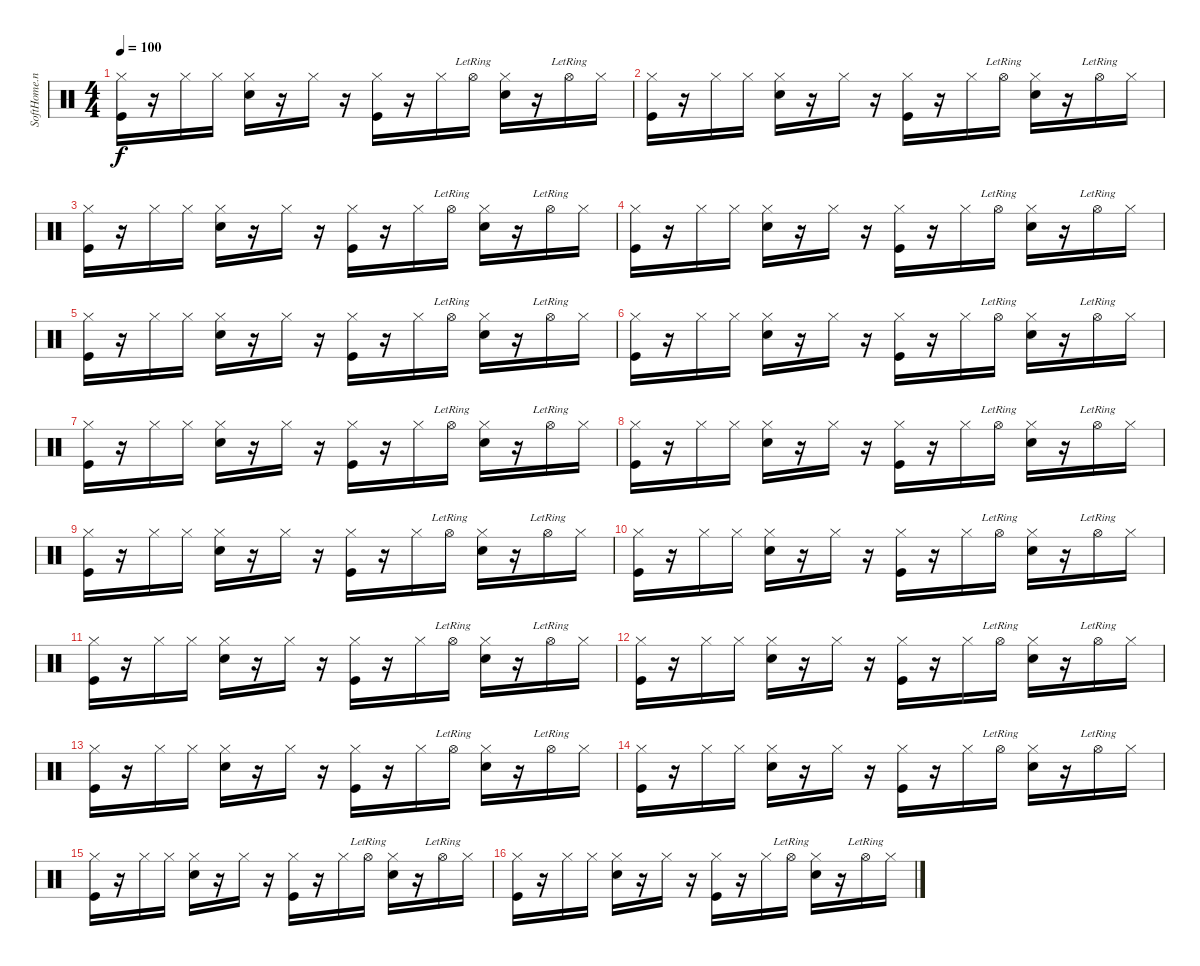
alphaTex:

\track ("SoftHome.net" "SoftHome.n") {instrument percussion}
\staff {score}
\articulation defaults
\ts (4 4)
\tempo 100
\clef neutral
\ks c
("Hi-Hat (closed)" "Kick (hit)").16{dy f} r.16 "Hi-Hat (closed)".16 "Hi-Hat (closed)".16 ("Hi-Hat (closed)" "Snare (hit) 2").16 r.16 "Hi-Hat (closed)".16 r.16 ("Hi-Hat (closed)" "Kick (hit)").16 r.16 "Hi-Hat (closed)".16 "Hi-Hat (open)"{lr}.16 ("Hi-Hat (closed)" "Snare (hit) 2").16 r.16 "Hi-Hat (open)"{lr}.16 "Hi-Hat (closed)".16 |
("Hi-Hat (closed)" "Kick (hit)").16 r.16 "Hi-Hat (closed)".16 "Hi-Hat (closed)".16 ("Hi-Hat (closed)" "Snare (hit) 2").16 r.16 "Hi-Hat (closed)".16 r.16 ("Hi-Hat (closed)" "Kick (hit)").16 r.16 "Hi-Hat (closed)".16 "Hi-Hat (open)"{lr}.16 ("Hi-Hat (closed)" "Snare (hit) 2").16 r.16 "Hi-Hat (open)"{lr}.16 "Hi-Hat (closed)".16 |
("Hi-Hat (closed)" "Kick (hit)").16 r.16 "Hi-Hat (closed)".16 "Hi-Hat (closed)".16 ("Hi-Hat (closed)" "Snare (hit) 2").16 r.16 "Hi-Hat (closed)".16 r.16 ("Hi-Hat (closed)" "Kick (hit)").16 r.16 "Hi-Hat (closed)".16 "Hi-Hat (open)"{lr}.16 ("Hi-Hat (closed)" "Snare (hit) 2").16 r.16 "Hi-Hat (open)"{lr}.16 "Hi-Hat (closed)".16 |
("Hi-Hat (closed)" "Kick (hit)").16 r.16 "Hi-Hat (closed)".16 "Hi-Hat (closed)".16 ("Hi-Hat (closed)" "Snare (hit) 2").16 r.16 "Hi-Hat (closed)".16 r.16 ("Hi-Hat (closed)" "Kick (hit)").16 r.16 "Hi-Hat (closed)".16 "Hi-Hat (open)"{lr}.16 ("Hi-Hat (closed)" "Snare (hit) 2").16 r.16 "Hi-Hat (open)"{lr}.16 "Hi-Hat (closed)".16 |
("Hi-Hat (closed)" "Kick (hit)").16 r.16 "Hi-Hat (closed)".16 "Hi-Hat (closed)".16 ("Hi-Hat (closed)" "Snare (hit) 2").16 r.16 "Hi-Hat (closed)".16 r.16 ("Hi-Hat (closed)" "Kick (hit)").16 r.16 "Hi-Hat (closed)".16 "Hi-Hat (open)"{lr}.16 ("Hi-Hat (closed)" "Snare (hit) 2").16 r.16 "Hi-Hat (open)"{lr}.16 "Hi-Hat (closed)".16 |
("Hi-Hat (closed)" "Kick (hit)").16 r.16 "Hi-Hat (closed)".16 "Hi-Hat (closed)".16 ("Hi-Hat (closed)" "Snare (hit) 2").16 r.16 "Hi-Hat (closed)".16 r.16 ("Hi-Hat (closed)" "Kick (hit)").16 r.16 "Hi-Hat (closed)".16 "Hi-Hat (open)"{lr}.16 ("Hi-Hat (closed)" "Snare (hit) 2").16 r.16 "Hi-Hat (open)"{lr}.16 "Hi-Hat (closed)".16 |
("Hi-Hat (closed)" "Kick (hit)").16 r.16 "Hi-Hat (closed)".16 "Hi-Hat (closed)".16 ("Hi-Hat (closed)" "Snare (hit) 2").16 r.16 "Hi-Hat (closed)".16 r.16 ("Hi-Hat (closed)" "Kick (hit)").16 r.16 "Hi-Hat (closed)".16 "Hi-Hat (open)"{lr}.16 ("Hi-Hat (closed)" "Snare (hit) 2").16 r.16 "Hi-Hat (open)"{lr}.16 "Hi-Hat (closed)".16 |
("Hi-Hat (closed)" "Kick (hit)").16 r.16 "Hi-Hat (closed)".16 "Hi-Hat (closed)".16 ("Hi-Hat (closed)" "Snare (hit) 2").16 r.16 "Hi-Hat (closed)".16 r.16 ("Hi-Hat (closed)" "Kick (hit)").16 r.16 "Hi-Hat (closed)".16 "Hi-Hat (open)"{lr}.16 ("Hi-Hat (closed)" "Snare (hit) 2").16 r.16 "Hi-Hat (open)"{lr}.16 "Hi-Hat (closed)".16 |
("Hi-Hat (closed)" "Kick (hit)").16 r.16 "Hi-Hat (closed)".16 "Hi-Hat (closed)".16 ("Hi-Hat (closed)" "Snare (hit) 2").16 r.16 "Hi-Hat (closed)".16 r.16 ("Hi-Hat (closed)" "Kick (hit)").16 r.16 "Hi-Hat (closed)".16 "Hi-Hat (open)"{lr}.16 ("Hi-Hat (closed)" "Snare (hit) 2").16 r.16 "Hi-Hat (open)"{lr}.16 "Hi-Hat (closed)".16 |
("Hi-Hat (closed)" "Kick (hit)").16 r.16 "Hi-Hat (closed)".16 "Hi-Hat (closed)".16 ("Hi-Hat (closed)" "Snare (hit) 2").16 r.16 "Hi-Hat (closed)".16 r.16 ("Hi-Hat (closed)" "Kick (hit)").16 r.16 "Hi-Hat (closed)".16 "Hi-Hat (open)"{lr}.16 ("Hi-Hat (closed)" "Snare (hit) 2").16 r.16 "Hi-Hat (open)"{lr}.16 "Hi-Hat (closed)".16 |
("Hi-Hat (closed)" "Kick (hit)").16 r.16 "Hi-Hat (closed)".16 "Hi-Hat (closed)".16 ("Hi-Hat (closed)" "Snare (hit) 2").16 r.16 "Hi-Hat (closed)".16 r.16 ("Hi-Hat (closed)" "Kick (hit)").16 r.16 "Hi-Hat (closed)".16 "Hi-Hat (open)"{lr}.16 ("Hi-Hat (closed)" "Snare (hit) 2").16 r.16 "Hi-Hat (open)"{lr}.16 "Hi-Hat (closed)".16 |
("Hi-Hat (closed)" "Kick (hit)").16 r.16 "Hi-Hat (closed)".16 "Hi-Hat (closed)".16 ("Hi-Hat (closed)" "Snare (hit) 2").16 r.16 "Hi-Hat (closed)".16 r.16 ("Hi-Hat (closed)" "Kick (hit)").16 r.16 "Hi-Hat (closed)".16 "Hi-Hat (open)"{lr}.16 ("Hi-Hat (closed)" "Snare (hit) 2").16 r.16 "Hi-Hat (open)"{lr}.16 "Hi-Hat (closed)".16 |
("Hi-Hat (closed)" "Kick (hit)").16 r.16 "Hi-Hat (closed)".16 "Hi-Hat (closed)".16 ("Hi-Hat (closed)" "Snare (hit) 2").16 r.16 "Hi-Hat (closed)".16 r.16 ("Hi-Hat (closed)" "Kick (hit)").16 r.16 "Hi-Hat (closed)".16 "Hi-Hat (open)"{lr}.16 ("Hi-Hat (closed)" "Snare (hit) 2").16 r.16 "Hi-Hat (open)"{lr}.16 "Hi-Hat (closed)".16 |
("Hi-Hat (closed)" "Kick (hit)").16 r.16 "Hi-Hat (closed)".16 "Hi-Hat (closed)".16 ("Hi-Hat (closed)" "Snare (hit) 2").16 r.16 "Hi-Hat (closed)".16 r.16 ("Hi-Hat (closed)" "Kick (hit)").16 r.16 "Hi-Hat (closed)".16 "Hi-Hat (open)"{lr}.16 ("Hi-Hat (closed)" "Snare (hit) 2").16 r.16 "Hi-Hat (open)"{lr}.16 "Hi-Hat (closed)".16 |
("Hi-Hat (closed)" "Kick (hit)").16 r.16 "Hi-Hat (closed)".16 "Hi-Hat (closed)".16 ("Hi-Hat (closed)" "Snare (hit) 2").16 r.16 "Hi-Hat (closed)".16 r.16 ("Hi-Hat (closed)" "Kick (hit)").16 r.16 "Hi-Hat (closed)".16 "Hi-Hat (open)"{lr}.16 ("Hi-Hat (closed)" "Snare (hit) 2").16 r.16 "Hi-Hat (open)"{lr}.16 "Hi-Hat (closed)".16 |
("Hi-Hat (closed)" "Kick (hit)").16 r.16 "Hi-Hat (closed)".16 "Hi-Hat (closed)".16 ("Hi-Hat (closed)" "Snare (hit) 2").16 r.16 "Hi-Hat (closed)".16 r.16 ("Hi-Hat (closed)" "Kick (hit)").16 r.16 "Hi-Hat (closed)".16 "Hi-Hat (open)"{lr}.16 ("Hi-Hat (closed)" "Snare (hit) 2").16 r.16 "Hi-Hat (open)"{lr}.16 "Hi-Hat (closed)".16
